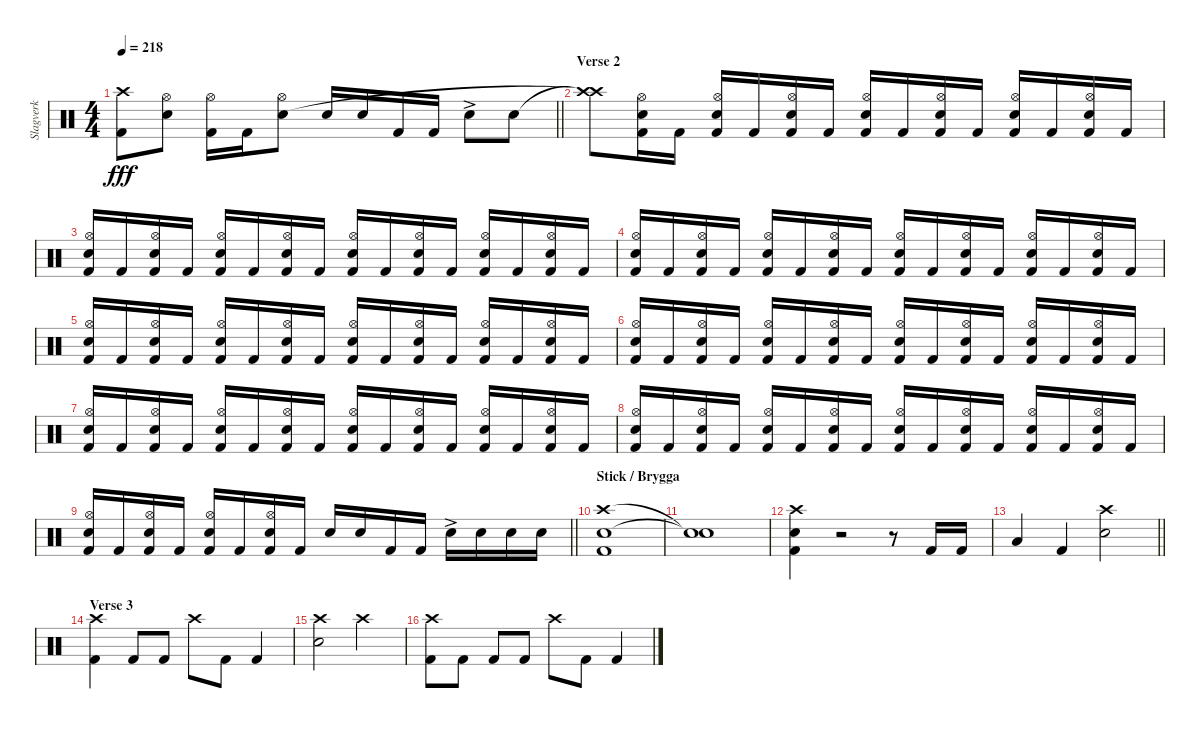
\track ("Slagverk" "Slagverk") {instrument percussion}
\staff {score}
\articulation defaults
\ts (4 4)
\tempo 218
\clef neutral
\barLineRight lightlight
\ks c
("Crash high (hit)" "Kick (hit) 2").8{dy fff} ("Hi-Hat (open)" "Electric Snare (hit)").8 ("Hi-Hat (open)" "Kick (hit) 2").16 "Kick (hit) 2".16 ("Hi-Hat (open)" "Electric Snare (hit)").8 "Electric Snare (hit)".16 "Electric Snare (hit)".16 "Kick (hit) 2".16 "Kick (hit) 2".16 "Electric Snare (hit)"{ac}.8 "Electric Snare (hit)".8 |
\section ("" "Verse 2")
("Crash high (hit)"{t} "Crash high (hit)"{t}).8 ("Hi-Hat (open)" "Electric Snare (hit)" "Kick (hit) 2").16 "Kick (hit) 2".16 ("Hi-Hat (open)" "Electric Snare (hit)" "Kick (hit) 2").16 "Kick (hit) 2".16 ("Hi-Hat (open)" "Electric Snare (hit)" "Kick (hit) 2").16 "Kick (hit) 2".16 ("Hi-Hat (open)" "Electric Snare (hit)" "Kick (hit) 2").16 "Kick (hit) 2".16 ("Hi-Hat (open)" "Electric Snare (hit)" "Kick (hit) 2").16 "Kick (hit) 2".16 ("Hi-Hat (open)" "Electric Snare (hit)" "Kick (hit) 2").16 "Kick (hit) 2".16 ("Hi-Hat (open)" "Electric Snare (hit)" "Kick (hit) 2").16 "Kick (hit) 2".16 |
("Hi-Hat (open)" "Electric Snare (hit)" "Kick (hit) 2").16 "Kick (hit) 2".16 ("Hi-Hat (open)" "Electric Snare (hit)" "Kick (hit) 2").16 "Kick (hit) 2".16 ("Hi-Hat (open)" "Electric Snare (hit)" "Kick (hit) 2").16 "Kick (hit) 2".16 ("Hi-Hat (open)" "Electric Snare (hit)" "Kick (hit) 2").16 "Kick (hit) 2".16 ("Hi-Hat (open)" "Electric Snare (hit)" "Kick (hit) 2").16 "Kick (hit) 2".16 ("Hi-Hat (open)" "Electric Snare (hit)" "Kick (hit) 2").16 "Kick (hit) 2".16 ("Hi-Hat (open)" "Electric Snare (hit)" "Kick (hit) 2").16 "Kick (hit) 2".16 ("Hi-Hat (open)" "Electric Snare (hit)" "Kick (hit) 2").16 "Kick (hit) 2".16 |
("Hi-Hat (open)" "Electric Snare (hit)" "Kick (hit) 2").16 "Kick (hit) 2".16 ("Hi-Hat (open)" "Electric Snare (hit)" "Kick (hit) 2").16 "Kick (hit) 2".16 ("Hi-Hat (open)" "Electric Snare (hit)" "Kick (hit) 2").16 "Kick (hit) 2".16 ("Hi-Hat (open)" "Electric Snare (hit)" "Kick (hit) 2").16 "Kick (hit) 2".16 ("Hi-Hat (open)" "Electric Snare (hit)" "Kick (hit) 2").16 "Kick (hit) 2".16 ("Hi-Hat (open)" "Electric Snare (hit)" "Kick (hit) 2").16 "Kick (hit) 2".16 ("Hi-Hat (open)" "Electric Snare (hit)" "Kick (hit) 2").16 "Kick (hit) 2".16 ("Hi-Hat (open)" "Electric Snare (hit)" "Kick (hit) 2").16 "Kick (hit) 2".16 |
("Hi-Hat (open)" "Electric Snare (hit)" "Kick (hit) 2").16 "Kick (hit) 2".16 ("Hi-Hat (open)" "Electric Snare (hit)" "Kick (hit) 2").16 "Kick (hit) 2".16 ("Hi-Hat (open)" "Electric Snare (hit)" "Kick (hit) 2").16 "Kick (hit) 2".16 ("Hi-Hat (open)" "Electric Snare (hit)" "Kick (hit) 2").16 "Kick (hit) 2".16 ("Hi-Hat (open)" "Electric Snare (hit)" "Kick (hit) 2").16 "Kick (hit) 2".16 ("Hi-Hat (open)" "Electric Snare (hit)" "Kick (hit) 2").16 "Kick (hit) 2".16 ("Hi-Hat (open)" "Electric Snare (hit)" "Kick (hit) 2").16 "Kick (hit) 2".16 ("Hi-Hat (open)" "Electric Snare (hit)" "Kick (hit) 2").16 "Kick (hit) 2".16 |
("Hi-Hat (open)" "Electric Snare (hit)" "Kick (hit) 2").16 "Kick (hit) 2".16 ("Hi-Hat (open)" "Electric Snare (hit)" "Kick (hit) 2").16 "Kick (hit) 2".16 ("Hi-Hat (open)" "Electric Snare (hit)" "Kick (hit) 2").16 "Kick (hit) 2".16 ("Hi-Hat (open)" "Electric Snare (hit)" "Kick (hit) 2").16 "Kick (hit) 2".16 ("Hi-Hat (open)" "Electric Snare (hit)" "Kick (hit) 2").16 "Kick (hit) 2".16 ("Hi-Hat (open)" "Electric Snare (hit)" "Kick (hit) 2").16 "Kick (hit) 2".16 ("Hi-Hat (open)" "Electric Snare (hit)" "Kick (hit) 2").16 "Kick (hit) 2".16 ("Hi-Hat (open)" "Electric Snare (hit)" "Kick (hit) 2").16 "Kick (hit) 2".16 |
("Hi-Hat (open)" "Electric Snare (hit)" "Kick (hit) 2").16 "Kick (hit) 2".16 ("Hi-Hat (open)" "Electric Snare (hit)" "Kick (hit) 2").16 "Kick (hit) 2".16 ("Hi-Hat (open)" "Electric Snare (hit)" "Kick (hit) 2").16 "Kick (hit) 2".16 ("Hi-Hat (open)" "Electric Snare (hit)" "Kick (hit) 2").16 "Kick (hit) 2".16 ("Hi-Hat (open)" "Electric Snare (hit)" "Kick (hit) 2").16 "Kick (hit) 2".16 ("Hi-Hat (open)" "Electric Snare (hit)" "Kick (hit) 2").16 "Kick (hit) 2".16 ("Hi-Hat (open)" "Electric Snare (hit)" "Kick (hit) 2").16 "Kick (hit) 2".16 ("Hi-Hat (open)" "Electric Snare (hit)" "Kick (hit) 2").16 "Kick (hit) 2".16 |
("Hi-Hat (open)" "Electric Snare (hit)" "Kick (hit) 2").16 "Kick (hit) 2".16 ("Hi-Hat (open)" "Electric Snare (hit)" "Kick (hit) 2").16 "Kick (hit) 2".16 ("Hi-Hat (open)" "Electric Snare (hit)" "Kick (hit) 2").16 "Kick (hit) 2".16 ("Hi-Hat (open)" "Electric Snare (hit)" "Kick (hit) 2").16 "Kick (hit) 2".16 ("Hi-Hat (open)" "Electric Snare (hit)" "Kick (hit) 2").16 "Kick (hit) 2".16 ("Hi-Hat (open)" "Electric Snare (hit)" "Kick (hit) 2").16 "Kick (hit) 2".16 ("Hi-Hat (open)" "Electric Snare (hit)" "Kick (hit) 2").16 "Kick (hit) 2".16 ("Hi-Hat (open)" "Electric Snare (hit)" "Kick (hit) 2").16 "Kick (hit) 2".16 |
\barLineRight lightlight
("Hi-Hat (open)" "Electric Snare (hit)" "Kick (hit) 2").16 "Kick (hit) 2".16 ("Hi-Hat (open)" "Electric Snare (hit)" "Kick (hit) 2").16 "Kick (hit) 2".16 ("Hi-Hat (open)" "Electric Snare (hit)" "Kick (hit) 2").16 "Kick (hit) 2".16 ("Hi-Hat (open)" "Electric Snare (hit)" "Kick (hit) 2").16 "Kick (hit) 2".16 "Electric Snare (hit)".16 "Electric Snare (hit)".16 "Kick (hit) 2".16 "Kick (hit) 2".16 "Electric Snare (hit)"{ac}.16 "Electric Snare (hit)".16 "Electric Snare (hit)".16 "Electric Snare (hit)".16 |
\section ("" "Stick / Brygga")
("Crash high (hit)" "Electric Snare (hit)" "Kick (hit) 2").1 |
("Snare (hit)"{t} "Snare (hit)"{t}).1 |
("Crash high (hit)" "Electric Snare (hit)" "Kick (hit) 2").4 r.2 r.8 "Kick (hit) 2".16 "Kick (hit) 2".16 |
\barLineRight lightlight "Low Tom (hit)".4 "Kick (hit) 2".4
("Crash high (hit)" "Electric Snare (hit)").2 |
\section ("" "Verse 3")
("Crash high (hit)" "Kick (hit) 2").4 "Kick (hit) 2".8 "Kick (hit) 2".8 "Crash high (hit)".8 "Kick (hit) 2".8 "Kick (hit) 2".4 |
("Crash high (hit)" "Electric Snare (hit)").2 "Crash high (hit)".2 |
("Crash high (hit)" "Kick (hit) 2").8 "Kick (hit) 2".8 "Kick (hit) 2".8 "Kick (hit) 2".8 "Crash high (hit)".8 "Kick (hit) 2".8 "Kick (hit) 2".4
